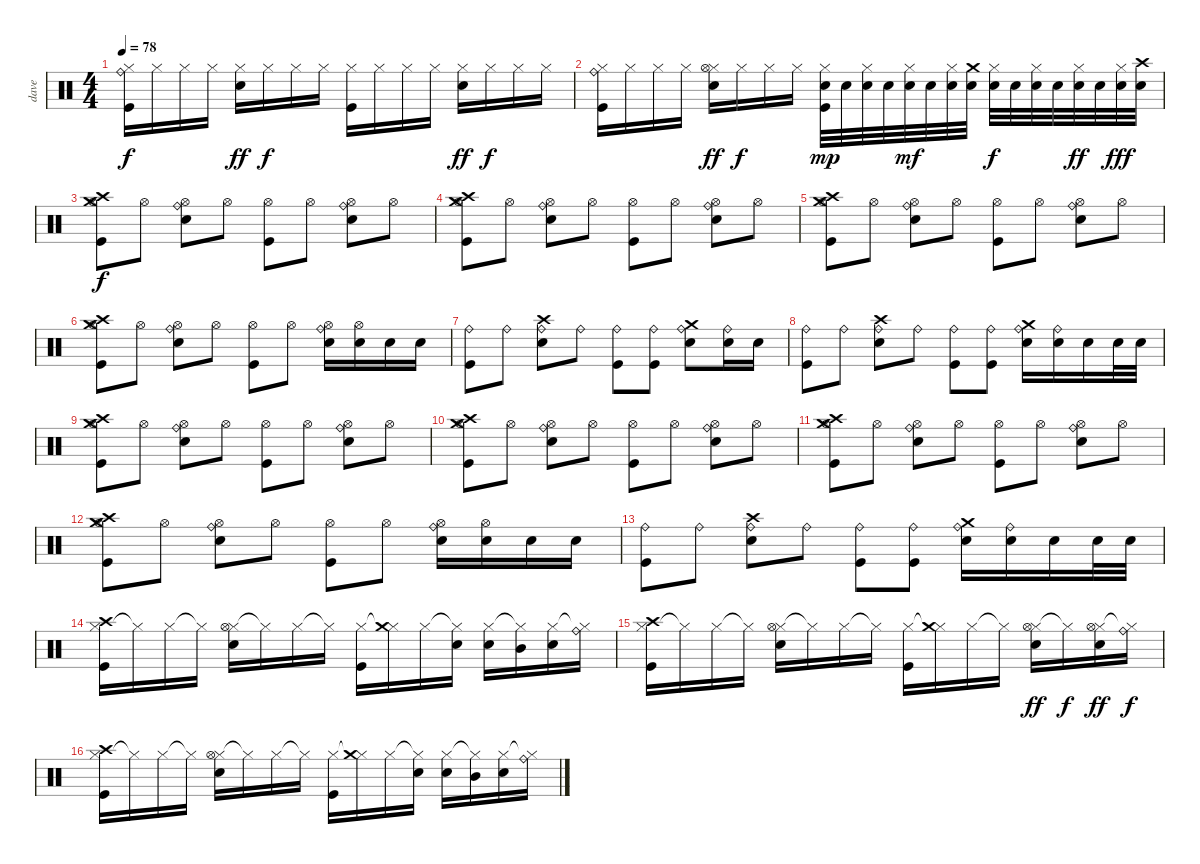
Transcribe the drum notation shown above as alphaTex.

\track ("dave" "dave") {instrument percussion}
\staff {score}
\articulation defaults
\ts (4 4)
\tempo 78
\clef neutral
\ks c
("Hi-Hat (closed)" "Ride (bell)" "Kick (hit)").16{dy f} "Hi-Hat (closed)".16 "Hi-Hat (closed)".16 "Hi-Hat (closed)".16 ("Hi-Hat (closed)" "Snare (hit) 2").16{dy ff} "Hi-Hat (closed)".16{dy f} "Hi-Hat (closed)".16 "Hi-Hat (closed)".16 ("Hi-Hat (closed)" "Kick (hit)").16 "Hi-Hat (closed)".16 "Hi-Hat (closed)".16 "Hi-Hat (closed)".16 ("Hi-Hat (closed)" "Snare (hit) 2").16{dy ff} "Hi-Hat (closed)".16{dy f} "Hi-Hat (closed)".16 "Hi-Hat (closed)".16 |
("Hi-Hat (closed)" "Ride (bell)" "Kick (hit)").16 "Hi-Hat (closed)".16 "Hi-Hat (closed)".16 "Hi-Hat (closed)".16 ("Hi-Hat (closed)" "Hi-Hat (open)" "Snare (hit) 2").16{dy ff} "Hi-Hat (closed)".16{dy f} "Hi-Hat (closed)".16 "Hi-Hat (closed)".16 ("Hi-Hat (closed)" "Snare (hit) 2" "Kick (hit)").32{dy mp} "Snare (hit) 2".32 ("Hi-Hat (closed)" "Snare (hit) 2").32 "Snare (hit) 2".32 ("Hi-Hat (closed)" "Snare (hit) 2").32{dy mf} "Snare (hit) 2".32 ("Hi-Hat (closed)" "Snare (hit) 2").32 ("Crash medium (hit)" "Snare (hit) 2").32 ("Hi-Hat (closed)" "Snare (hit) 2").32{dy f} "Snare (hit) 2".32 ("Hi-Hat (closed)" "Snare (hit) 2").32 "Snare (hit) 2".32 ("Hi-Hat (closed)" "Snare (hit) 2").32{dy ff} "Snare (hit) 2".32 ("Hi-Hat (closed)" "Snare (hit) 2").32{dy fff} ("Crash high (hit)" "Snare (hit) 2").32 |
("Hi-Hat (open)" "Crash medium (hit)" "Crash high (hit)" "Kick (hit)").8{dy f} "Hi-Hat (open)".8 ("Hi-Hat (open)" "Ride (bell)" "Snare (hit) 2").8 "Hi-Hat (open)".8 ("Hi-Hat (open)" "Kick (hit)").8 "Hi-Hat (open)".8 ("Hi-Hat (open)" "Ride (bell)" "Snare (hit) 2").8 "Hi-Hat (open)".8 |
("Hi-Hat (open)" "Crash medium (hit)" "Crash high (hit)" "Kick (hit)").8 "Hi-Hat (open)".8 ("Hi-Hat (open)" "Ride (bell)" "Snare (hit) 2").8 "Hi-Hat (open)".8 ("Hi-Hat (open)" "Kick (hit)").8 "Hi-Hat (open)".8 ("Hi-Hat (open)" "Ride (bell)" "Snare (hit) 2").8 "Hi-Hat (open)".8 |
("Hi-Hat (open)" "Crash medium (hit)" "Crash high (hit)" "Kick (hit)").8 "Hi-Hat (open)".8 ("Hi-Hat (open)" "Ride (bell)" "Snare (hit) 2").8 "Hi-Hat (open)".8 ("Hi-Hat (open)" "Kick (hit)").8 "Hi-Hat (open)".8 ("Hi-Hat (open)" "Ride (bell)" "Snare (hit) 2").8 "Hi-Hat (open)".8 |
("Hi-Hat (open)" "Crash medium (hit)" "Crash high (hit)" "Kick (hit)").8 "Hi-Hat (open)".8 ("Hi-Hat (open)" "Ride (bell)" "Snare (hit) 2").8 "Hi-Hat (open)".8 ("Hi-Hat (open)" "Kick (hit)").8 "Hi-Hat (open)".8 ("Hi-Hat (open)" "Ride (bell)" "Snare (hit) 2").16 ("Hi-Hat (open)" "Snare (hit) 2").16 "Snare (hit) 2".16 "Snare (hit) 2".16 |
("Ride (bell)" "Kick (hit)").8 "Ride (bell)".8 ("Ride (bell)" "Crash high (hit)" "Snare (hit) 2").8 "Ride (bell)".8 ("Ride (bell)" "Kick (hit)").8 ("Ride (bell)" "Kick (hit)").8 ("Ride (bell)" "Crash medium (hit)" "Snare (hit) 2").8 ("Ride (bell)" "Snare (hit) 2").16 "Snare (hit) 2".16 |
("Ride (bell)" "Kick (hit)").8 "Ride (bell)".8 ("Ride (bell)" "Crash high (hit)" "Snare (hit) 2").8 "Ride (bell)".8 ("Ride (bell)" "Kick (hit)").8 ("Ride (bell)" "Kick (hit)").8 ("Ride (bell)" "Crash medium (hit)" "Snare (hit) 2").16 ("Ride (bell)" "Snare (hit) 2").16 "Snare (hit) 2".16 "Snare (hit) 2".32 "Snare (hit) 2".32 |
("Hi-Hat (open)" "Crash medium (hit)" "Crash high (hit)" "Kick (hit)").8 "Hi-Hat (open)".8 ("Hi-Hat (open)" "Ride (bell)" "Snare (hit) 2").8 "Hi-Hat (open)".8 ("Hi-Hat (open)" "Kick (hit)").8 "Hi-Hat (open)".8 ("Hi-Hat (open)" "Ride (bell)" "Snare (hit) 2").8 "Hi-Hat (open)".8 |
("Hi-Hat (open)" "Crash medium (hit)" "Crash high (hit)" "Kick (hit)").8 "Hi-Hat (open)".8 ("Hi-Hat (open)" "Ride (bell)" "Snare (hit) 2").8 "Hi-Hat (open)".8 ("Hi-Hat (open)" "Kick (hit)").8 "Hi-Hat (open)".8 ("Hi-Hat (open)" "Ride (bell)" "Snare (hit) 2").8 "Hi-Hat (open)".8 |
("Hi-Hat (open)" "Crash medium (hit)" "Crash high (hit)" "Kick (hit)").8 "Hi-Hat (open)".8 ("Hi-Hat (open)" "Ride (bell)" "Snare (hit) 2").8 "Hi-Hat (open)".8 ("Hi-Hat (open)" "Kick (hit)").8 "Hi-Hat (open)".8 ("Hi-Hat (open)" "Ride (bell)" "Snare (hit) 2").8 "Hi-Hat (open)".8 |
("Hi-Hat (open)" "Crash medium (hit)" "Crash high (hit)" "Kick (hit)").8 "Hi-Hat (open)".8 ("Hi-Hat (open)" "Ride (bell)" "Snare (hit) 2").8 "Hi-Hat (open)".8 ("Hi-Hat (open)" "Kick (hit)").8 "Hi-Hat (open)".8 ("Hi-Hat (open)" "Ride (bell)" "Snare (hit) 2").16 ("Hi-Hat (open)" "Snare (hit) 2").16 "Snare (hit) 2".16 "Snare (hit) 2".16 |
("Ride (bell)" "Kick (hit)").8 "Ride (bell)".8 ("Ride (bell)" "Crash high (hit)" "Snare (hit) 2").8 "Ride (bell)".8 ("Ride (bell)" "Kick (hit)").8 ("Ride (bell)" "Kick (hit)").8 ("Ride (bell)" "Crash medium (hit)" "Snare (hit) 2").16 ("Ride (bell)" "Snare (hit) 2").16 "Snare (hit) 2".16 "Snare (hit) 2".32 "Snare (hit) 2".32 |
("Hi-Hat (closed)" "Crash high (hit)" "Kick (hit)").16 "Hi-Hat (closed)"{t}.16 "Hi-Hat (closed)".16 "Hi-Hat (closed)"{t}.16 ("Hi-Hat (closed)" "Hi-Hat (open)" "Snare (hit) 2").16 "Hi-Hat (closed)"{t}.16 "Hi-Hat (closed)".16 "Hi-Hat (closed)"{t}.16 ("Hi-Hat (closed)" "Kick (hit)").16 ("Hi-Hat (closed)"{t} "Crash medium (hit)").16 "Hi-Hat (closed)".16 ("Hi-Hat (closed)"{t} "Snare (hit) 2").16 ("Hi-Hat (closed)" "Snare (hit) 2").16 ("Hi-Hat (closed)"{t} "Mid Tom (hit)").16 ("Hi-Hat (closed)" "Snare (hit) 2").16 ("Hi-Hat (closed)"{t} "Ride (bell)").16 |
("Hi-Hat (closed)" "Crash high (hit)" "Kick (hit)").16 "Hi-Hat (closed)"{t}.16 "Hi-Hat (closed)".16 "Hi-Hat (closed)"{t}.16 ("Hi-Hat (closed)" "Hi-Hat (open)" "Snare (hit) 2").16 "Hi-Hat (closed)"{t}.16 "Hi-Hat (closed)".16 "Hi-Hat (closed)"{t}.16 ("Hi-Hat (closed)" "Kick (hit)").16 ("Hi-Hat (closed)"{t} "Crash medium (hit)").16 "Hi-Hat (closed)".16 "Hi-Hat (closed)"{t}.16 ("Hi-Hat (closed)" "Hi-Hat (open)" "Snare (hit) 2").16{dy ff} "Hi-Hat (closed)"{t}.16{dy f} ("Hi-Hat (closed)" "Hi-Hat (open)" "Snare (hit) 2").16{dy ff} ("Hi-Hat (closed)"{t} "Ride (bell)").16{dy f} |
("Hi-Hat (closed)" "Crash high (hit)" "Kick (hit)").16 "Hi-Hat (closed)"{t}.16 "Hi-Hat (closed)".16 "Hi-Hat (closed)"{t}.16 ("Hi-Hat (closed)" "Hi-Hat (open)" "Snare (hit) 2").16 "Hi-Hat (closed)"{t}.16 "Hi-Hat (closed)".16 "Hi-Hat (closed)"{t}.16 ("Hi-Hat (closed)" "Kick (hit)").16 ("Hi-Hat (closed)"{t} "Crash medium (hit)").16 "Hi-Hat (closed)".16 ("Hi-Hat (closed)"{t} "Snare (hit) 2").16 ("Hi-Hat (closed)" "Snare (hit) 2").16 ("Hi-Hat (closed)"{t} "Mid Tom (hit)").16 ("Hi-Hat (closed)" "Snare (hit) 2").16 ("Hi-Hat (closed)"{t} "Ride (bell)").16
